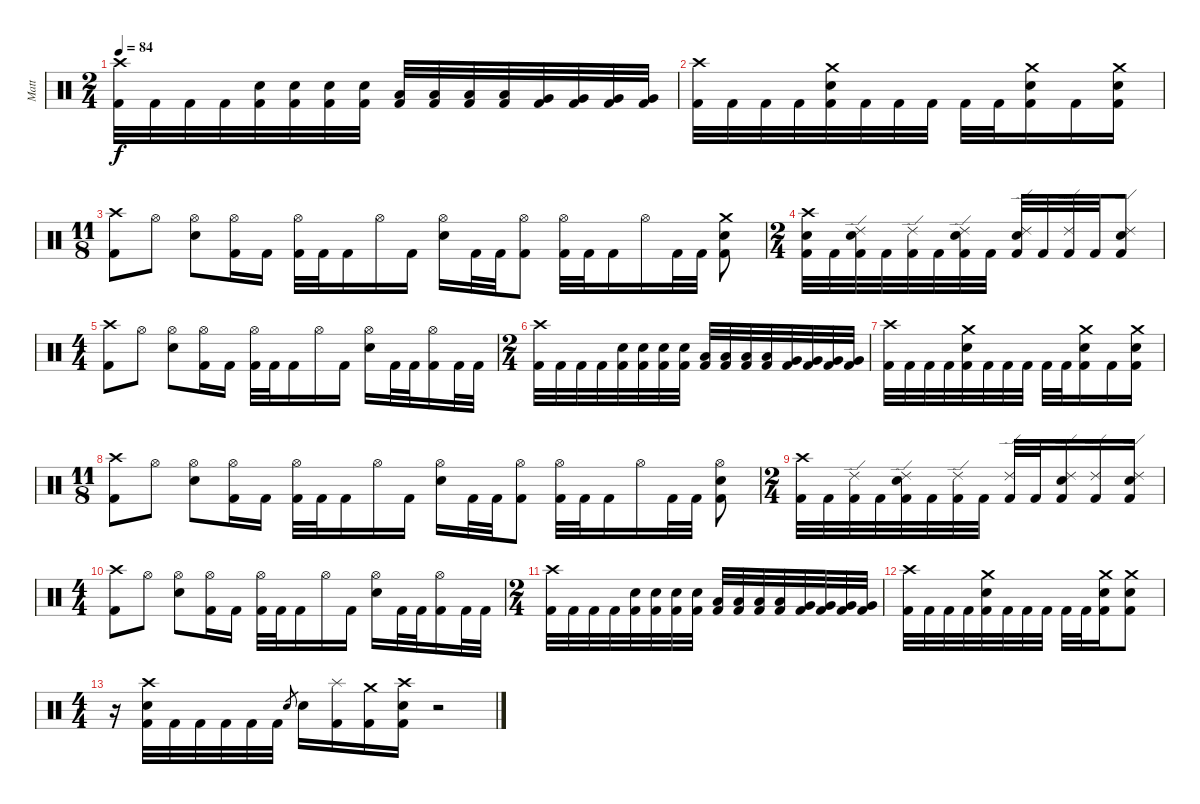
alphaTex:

\track ("Matt" "Matt") {instrument percussion}
\staff {score}
\articulation defaults
\ts (2 4)
\tempo 84
\clef neutral
\ks c
("Crash high (hit)" "Kick (hit) 2").32{dy f} "Kick (hit) 2".32 "Kick (hit) 2".32 "Kick (hit) 2".32 ("Electric Snare (hit)" "Kick (hit) 2").32 ("Electric Snare (hit)" "Kick (hit) 2").32 ("Electric Snare (hit)" "Kick (hit) 2").32 ("Electric Snare (hit)" "Kick (hit) 2").32 ("Low Tom (hit)" "Kick (hit) 2").32 ("Low Tom (hit)" "Kick (hit) 2").32 ("Low Tom (hit)" "Kick (hit) 2").32 ("Low Tom (hit)" "Kick (hit) 2").32 ("Very Low Tom (hit)" "Kick (hit) 2").32 ("Very Low Tom (hit)" "Kick (hit) 2").32 ("Very Low Tom (hit)" "Kick (hit) 2").32 ("Very Low Tom (hit)" "Kick (hit) 2").32 |
("Crash high (hit)" "Kick (hit) 2").32 "Kick (hit) 2".32 "Kick (hit) 2".32 "Kick (hit) 2".32 ("Crash medium (hit)" "Electric Snare (hit)" "Kick (hit) 2").32 "Kick (hit) 2".32 "Kick (hit) 2".32 "Kick (hit) 2".32 "Kick (hit) 2".32 "Kick (hit) 2".32 ("Crash medium (hit)" "Electric Snare (hit)" "Kick (hit) 2").16 "Kick (hit) 2".16 ("Crash medium (hit)" "Electric Snare (hit)" "Kick (hit) 2").16 |
\ts (11 8)
("Crash high (hit)" "Kick (hit) 2").8 "Hi-Hat (open)".8 ("Hi-Hat (open)" "Electric Snare (hit)").8 ("Hi-Hat (open)" "Kick (hit) 2").16 "Kick (hit) 2".16 ("Hi-Hat (open)" "Kick (hit) 2").32 "Kick (hit) 2".32 "Kick (hit) 2".16 "Hi-Hat (open)".16 "Kick (hit) 2".16 ("Hi-Hat (open)" "Electric Snare (hit)").16 "Kick (hit) 2".32 "Kick (hit) 2".32 ("Hi-Hat (open)" "Kick (hit) 2").8 ("Hi-Hat (open)" "Kick (hit) 2").32 "Kick (hit) 2".32 "Kick (hit) 2".16 "Hi-Hat (open)".16 "Kick (hit) 2".32 "Kick (hit) 2".32 ("Crash medium (hit)" "Electric Snare (hit)" "Kick (hit) 2").8 |
\ts (2 4)
("Crash high (hit)" "Electric Snare (hit)" "Kick (hit) 2").32 "Kick (hit) 2".32 ("Ride (edge) 2" "Electric Snare (hit)" "Kick (hit) 2").32 "Kick (hit) 2".32 ("Ride (edge) 2" "Kick (hit) 2").32 "Kick (hit) 2".32 ("Ride (edge) 2" "Electric Snare (hit)" "Kick (hit) 2").32 "Kick (hit) 2".32 ("Ride (edge) 2" "Electric Snare (hit)" "Kick (hit) 2").32 "Kick (hit) 2".32 ("Ride (edge) 2" "Kick (hit) 2").32 "Kick (hit) 2".32 ("Ride (edge) 2" "Electric Snare (hit)" "Kick (hit) 2").8 |
\ts (4 4)
("Crash high (hit)" "Kick (hit) 2").8 "Hi-Hat (open)".8 ("Hi-Hat (open)" "Electric Snare (hit)").8 ("Hi-Hat (open)" "Kick (hit) 2").16 "Kick (hit) 2".16 ("Hi-Hat (open)" "Kick (hit) 2").32 "Kick (hit) 2".32 "Kick (hit) 2".16 "Hi-Hat (open)".16 "Kick (hit) 2".16 ("Hi-Hat (open)" "Electric Snare (hit)").16 "Kick (hit) 2".32 "Kick (hit) 2".32 ("Hi-Hat (open)" "Kick (hit) 2").16 "Kick (hit) 2".32 "Kick (hit) 2".32 |
\ts (2 4)
("Crash high (hit)" "Kick (hit) 2").32 "Kick (hit) 2".32 "Kick (hit) 2".32 "Kick (hit) 2".32 ("Electric Snare (hit)" "Kick (hit) 2").32 ("Electric Snare (hit)" "Kick (hit) 2").32 ("Electric Snare (hit)" "Kick (hit) 2").32 ("Electric Snare (hit)" "Kick (hit) 2").32 ("Low Tom (hit)" "Kick (hit) 2").32 ("Low Tom (hit)" "Kick (hit) 2").32 ("Low Tom (hit)" "Kick (hit) 2").32 ("Low Tom (hit)" "Kick (hit) 2").32 ("Very Low Tom (hit)" "Kick (hit) 2").32 ("Very Low Tom (hit)" "Kick (hit) 2").32 ("Very Low Tom (hit)" "Kick (hit) 2").32 ("Very Low Tom (hit)" "Kick (hit) 2").32 |
("Crash high (hit)" "Kick (hit) 2").32 "Kick (hit) 2".32 "Kick (hit) 2".32 "Kick (hit) 2".32 ("Crash medium (hit)" "Electric Snare (hit)" "Kick (hit) 2").32 "Kick (hit) 2".32 "Kick (hit) 2".32 "Kick (hit) 2".32 "Kick (hit) 2".32 "Kick (hit) 2".32 ("Crash medium (hit)" "Electric Snare (hit)" "Kick (hit) 2").16 "Kick (hit) 2".16 ("Crash medium (hit)" "Electric Snare (hit)" "Kick (hit) 2").16 |
\ts (11 8)
("Crash high (hit)" "Kick (hit) 2").8 "Hi-Hat (open)".8 ("Hi-Hat (open)" "Electric Snare (hit)").8 ("Hi-Hat (open)" "Kick (hit) 2").16 "Kick (hit) 2".16 ("Hi-Hat (open)" "Kick (hit) 2").32 "Kick (hit) 2".32 "Kick (hit) 2".16 "Hi-Hat (open)".16 "Kick (hit) 2".16 ("Hi-Hat (open)" "Electric Snare (hit)").16 "Kick (hit) 2".32 "Kick (hit) 2".32 ("Hi-Hat (open)" "Kick (hit) 2").8 ("Hi-Hat (open)" "Kick (hit) 2").32 "Kick (hit) 2".32 "Kick (hit) 2".16 "Hi-Hat (open)".16 "Kick (hit) 2".32 "Kick (hit) 2".32 ("Hi-Hat (open)" "Electric Snare (hit)" "Kick (hit) 2").8 |
\ts (2 4)
("Crash high (hit)" "Kick (hit) 2").32 "Kick (hit) 2".32 ("Ride (edge) 2" "Kick (hit) 2").32 "Kick (hit) 2".32 ("Ride (edge) 2" "Electric Snare (hit)" "Kick (hit) 2").32 "Kick (hit) 2".32 ("Ride (edge) 2" "Kick (hit) 2").32 "Kick (hit) 2".32 ("Ride (edge) 2" "Kick (hit) 2").32 "Kick (hit) 2".32 ("Ride (edge) 2" "Electric Snare (hit)" "Kick (hit) 2").16 ("Ride (edge) 2" "Kick (hit) 2").16 ("Ride (edge) 2" "Electric Snare (hit)" "Kick (hit) 2").16 |
\ts (4 4)
("Crash high (hit)" "Kick (hit) 2").8 "Hi-Hat (open)".8 ("Hi-Hat (open)" "Electric Snare (hit)").8 ("Hi-Hat (open)" "Kick (hit) 2").16 "Kick (hit) 2".16 ("Hi-Hat (open)" "Kick (hit) 2").32 "Kick (hit) 2".32 "Kick (hit) 2".16 "Hi-Hat (open)".16 "Kick (hit) 2".16 ("Hi-Hat (open)" "Electric Snare (hit)").16 "Kick (hit) 2".32 "Kick (hit) 2".32 ("Hi-Hat (open)" "Kick (hit) 2").16 "Kick (hit) 2".32 "Kick (hit) 2".32 |
\ts (2 4)
("Crash high (hit)" "Kick (hit) 2").32 "Kick (hit) 2".32 "Kick (hit) 2".32 "Kick (hit) 2".32 ("Electric Snare (hit)" "Kick (hit) 2").32 ("Electric Snare (hit)" "Kick (hit) 2").32 ("Electric Snare (hit)" "Kick (hit) 2").32 ("Electric Snare (hit)" "Kick (hit) 2").32 ("Low Tom (hit)" "Kick (hit) 2").32 ("Low Tom (hit)" "Kick (hit) 2").32 ("Low Tom (hit)" "Kick (hit) 2").32 ("Low Tom (hit)" "Kick (hit) 2").32 ("Very Low Tom (hit)" "Kick (hit) 2").32 ("Very Low Tom (hit)" "Kick (hit) 2").32 ("Very Low Tom (hit)" "Kick (hit) 2").32 ("Very Low Tom (hit)" "Kick (hit) 2").32 |
("Crash high (hit)" "Kick (hit) 2").32 "Kick (hit) 2".32 "Kick (hit) 2".32 "Kick (hit) 2".32 ("Crash medium (hit)" "Electric Snare (hit)" "Kick (hit) 2").32 "Kick (hit) 2".32 "Kick (hit) 2".32 "Kick (hit) 2".32 "Kick (hit) 2".32 "Kick (hit) 2".32 ("Crash medium (hit)" "Electric Snare (hit)" "Kick (hit) 2").16 ("Crash medium (hit)" "Electric Snare (hit)" "Kick (hit) 2").8 |
\ts (4 4)
r.16 ("Crash high (hit)" "Electric Snare (hit)" "Kick (hit) 2").32 "Kick (hit) 2".32 "Kick (hit) 2".32 "Kick (hit) 2".32 "Kick (hit) 2".32 "Kick (hit) 2".32 "Electric Snare (hit)".8{gr} "Electric Snare (hit)".16 ("Splash (hit)" "Kick (hit) 2").16 ("Crash medium (hit)" "Kick (hit) 2").16 ("Crash high (hit)" "Electric Snare (hit)" "Kick (hit) 2").16 r.2
